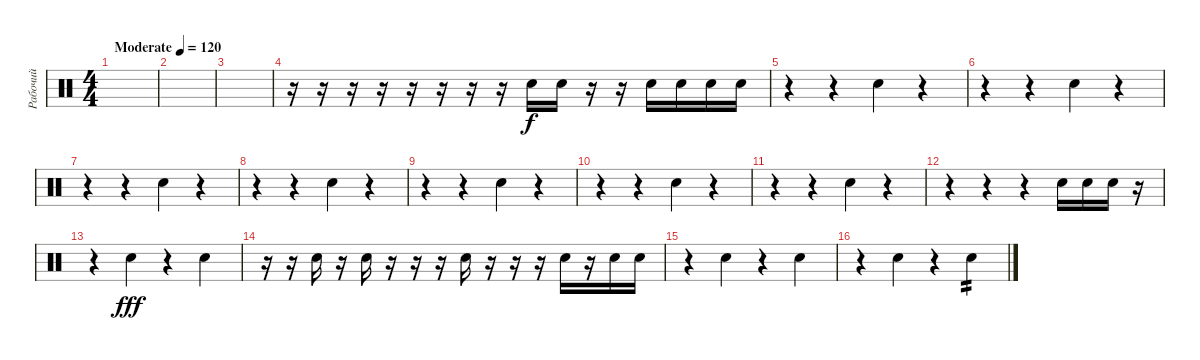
\track ("Рабочий" "Рабочий") {instrument percussion}
\staff {score}
\articulation defaults
\ts (4 4)
\tempo (120 "Moderate")
\clef neutral
\ks c
|
|
|
r.16 r.16 r.16 r.16 r.16 r.16 r.16 r.16 "Snare (hit) 2".16 "Snare (hit) 2".16 r.16 r.16 "Snare (hit) 2".16 "Snare (hit) 2".16 "Snare (hit) 2".16 "Snare (hit) 2".16 |
r.4 r.4 "Snare (hit) 2".4 r.4 |
r.4 r.4 "Snare (hit) 2".4 r.4 |
r.4 r.4 "Snare (hit) 2".4 r.4 |
r.4 r.4 "Snare (hit) 2".4 r.4 |
r.4 r.4 "Snare (hit) 2".4 r.4 |
r.4 r.4 "Snare (hit) 2".4 r.4 |
r.4 r.4 "Snare (hit) 2".4 r.4 |
r.4 r.4 r.4 "Snare (hit) 2".16 "Snare (hit) 2".16 "Snare (hit) 2".16{dy f} r.16 |
r.4 "Snare (hit) 2".4{dy fff} r.4 "Snare (hit) 2".4 |
r.16 r.16 "Snare (hit) 2".16 r.16 "Snare (hit) 2".16 r.16 r.16 r.16 "Snare (hit) 2".16 r.16 r.16 r.16 "Snare (hit) 2".16 r.16 "Snare (hit) 2".16 "Snare (hit) 2".16 |
r.4 "Snare (hit) 2".4 r.4 "Snare (hit) 2".4 |
r.4 "Snare (hit) 2".4 r.4 "Snare (hit) 2".4{tp 2}
